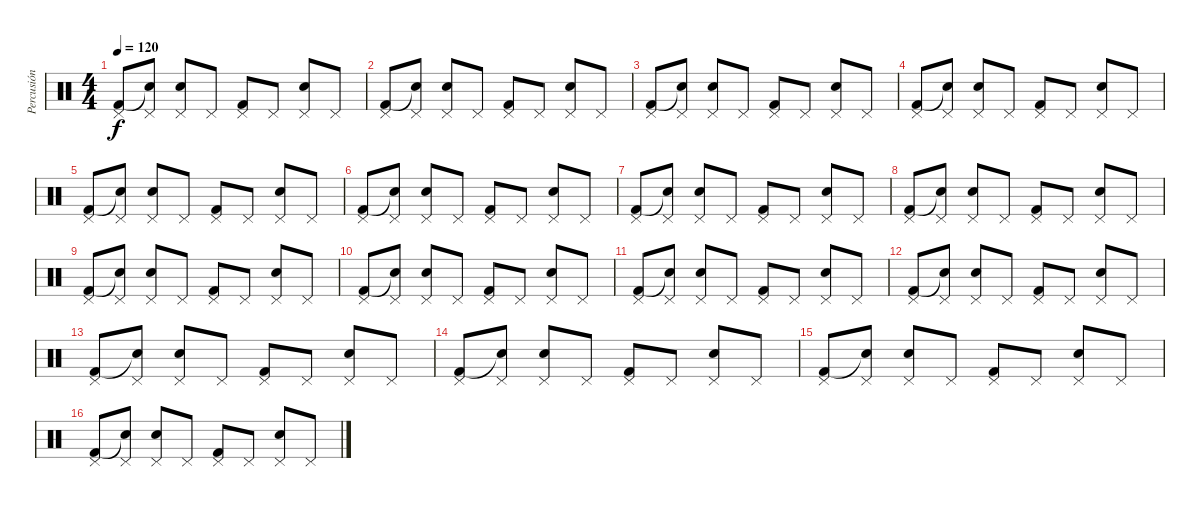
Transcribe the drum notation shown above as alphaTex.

\track ("Percusión" "Percusión") {instrument percussion}
\staff {score}
\articulation defaults
\ts (4 4)
\tempo 120
\clef neutral
\ks c
("Pedal Hi-Hat (hit)" "Kick (hit) 2").8{dy f} ("Pedal Hi-Hat (hit)" "Snare (hit)"{t}).8 ("Pedal Hi-Hat (hit)" "Snare (hit) 2").8 "Pedal Hi-Hat (hit)".8 ("Pedal Hi-Hat (hit)" "Kick (hit) 2").8 "Pedal Hi-Hat (hit)".8 ("Pedal Hi-Hat (hit)" "Snare (hit) 2").8 "Pedal Hi-Hat (hit)".8 |
("Pedal Hi-Hat (hit)" "Kick (hit) 2").8 ("Pedal Hi-Hat (hit)" "Snare (hit)"{t}).8 ("Pedal Hi-Hat (hit)" "Snare (hit) 2").8 "Pedal Hi-Hat (hit)".8 ("Pedal Hi-Hat (hit)" "Kick (hit) 2").8 "Pedal Hi-Hat (hit)".8 ("Pedal Hi-Hat (hit)" "Snare (hit) 2").8 "Pedal Hi-Hat (hit)".8 |
("Pedal Hi-Hat (hit)" "Kick (hit) 2").8 ("Pedal Hi-Hat (hit)" "Snare (hit)"{t}).8 ("Pedal Hi-Hat (hit)" "Snare (hit) 2").8 "Pedal Hi-Hat (hit)".8 ("Pedal Hi-Hat (hit)" "Kick (hit) 2").8 "Pedal Hi-Hat (hit)".8 ("Pedal Hi-Hat (hit)" "Snare (hit) 2").8 "Pedal Hi-Hat (hit)".8 |
("Pedal Hi-Hat (hit)" "Kick (hit) 2").8 ("Pedal Hi-Hat (hit)" "Snare (hit)"{t}).8 ("Pedal Hi-Hat (hit)" "Snare (hit) 2").8 "Pedal Hi-Hat (hit)".8 ("Pedal Hi-Hat (hit)" "Kick (hit) 2").8 "Pedal Hi-Hat (hit)".8 ("Pedal Hi-Hat (hit)" "Snare (hit) 2").8 "Pedal Hi-Hat (hit)".8 |
("Pedal Hi-Hat (hit)" "Kick (hit) 2").8 ("Pedal Hi-Hat (hit)" "Snare (hit)"{t}).8 ("Pedal Hi-Hat (hit)" "Snare (hit) 2").8 "Pedal Hi-Hat (hit)".8 ("Pedal Hi-Hat (hit)" "Kick (hit) 2").8 "Pedal Hi-Hat (hit)".8 ("Pedal Hi-Hat (hit)" "Snare (hit) 2").8 "Pedal Hi-Hat (hit)".8 |
("Pedal Hi-Hat (hit)" "Kick (hit) 2").8 ("Pedal Hi-Hat (hit)" "Snare (hit)"{t}).8 ("Pedal Hi-Hat (hit)" "Snare (hit) 2").8 "Pedal Hi-Hat (hit)".8 ("Pedal Hi-Hat (hit)" "Kick (hit) 2").8 "Pedal Hi-Hat (hit)".8 ("Pedal Hi-Hat (hit)" "Snare (hit) 2").8 "Pedal Hi-Hat (hit)".8 |
("Pedal Hi-Hat (hit)" "Kick (hit) 2").8 ("Pedal Hi-Hat (hit)" "Snare (hit)"{t}).8 ("Pedal Hi-Hat (hit)" "Snare (hit) 2").8 "Pedal Hi-Hat (hit)".8 ("Pedal Hi-Hat (hit)" "Kick (hit) 2").8 "Pedal Hi-Hat (hit)".8 ("Pedal Hi-Hat (hit)" "Snare (hit) 2").8 "Pedal Hi-Hat (hit)".8 |
("Pedal Hi-Hat (hit)" "Kick (hit) 2").8 ("Pedal Hi-Hat (hit)" "Snare (hit)"{t}).8 ("Pedal Hi-Hat (hit)" "Snare (hit) 2").8 "Pedal Hi-Hat (hit)".8 ("Pedal Hi-Hat (hit)" "Kick (hit) 2").8 "Pedal Hi-Hat (hit)".8 ("Pedal Hi-Hat (hit)" "Snare (hit) 2").8 "Pedal Hi-Hat (hit)".8 |
("Pedal Hi-Hat (hit)" "Kick (hit) 2").8 ("Pedal Hi-Hat (hit)" "Snare (hit)"{t}).8 ("Pedal Hi-Hat (hit)" "Snare (hit) 2").8 "Pedal Hi-Hat (hit)".8 ("Pedal Hi-Hat (hit)" "Kick (hit) 2").8 "Pedal Hi-Hat (hit)".8 ("Pedal Hi-Hat (hit)" "Snare (hit) 2").8 "Pedal Hi-Hat (hit)".8 |
("Pedal Hi-Hat (hit)" "Kick (hit) 2").8 ("Pedal Hi-Hat (hit)" "Snare (hit)"{t}).8 ("Pedal Hi-Hat (hit)" "Snare (hit) 2").8 "Pedal Hi-Hat (hit)".8 ("Pedal Hi-Hat (hit)" "Kick (hit) 2").8 "Pedal Hi-Hat (hit)".8 ("Pedal Hi-Hat (hit)" "Snare (hit) 2").8 "Pedal Hi-Hat (hit)".8 |
("Pedal Hi-Hat (hit)" "Kick (hit) 2").8 ("Pedal Hi-Hat (hit)" "Snare (hit)"{t}).8 ("Pedal Hi-Hat (hit)" "Snare (hit) 2").8 "Pedal Hi-Hat (hit)".8 ("Pedal Hi-Hat (hit)" "Kick (hit) 2").8 "Pedal Hi-Hat (hit)".8 ("Pedal Hi-Hat (hit)" "Snare (hit) 2").8 "Pedal Hi-Hat (hit)".8 |
("Pedal Hi-Hat (hit)" "Kick (hit) 2").8 ("Pedal Hi-Hat (hit)" "Snare (hit)"{t}).8 ("Pedal Hi-Hat (hit)" "Snare (hit) 2").8 "Pedal Hi-Hat (hit)".8 ("Pedal Hi-Hat (hit)" "Kick (hit) 2").8 "Pedal Hi-Hat (hit)".8 ("Pedal Hi-Hat (hit)" "Snare (hit) 2").8 "Pedal Hi-Hat (hit)".8 |
("Pedal Hi-Hat (hit)" "Kick (hit) 2").8 ("Pedal Hi-Hat (hit)" "Snare (hit)"{t}).8 ("Pedal Hi-Hat (hit)" "Snare (hit) 2").8 "Pedal Hi-Hat (hit)".8 ("Pedal Hi-Hat (hit)" "Kick (hit) 2").8 "Pedal Hi-Hat (hit)".8 ("Pedal Hi-Hat (hit)" "Snare (hit) 2").8 "Pedal Hi-Hat (hit)".8 |
("Pedal Hi-Hat (hit)" "Kick (hit) 2").8 ("Pedal Hi-Hat (hit)" "Snare (hit)"{t}).8 ("Pedal Hi-Hat (hit)" "Snare (hit) 2").8 "Pedal Hi-Hat (hit)".8 ("Pedal Hi-Hat (hit)" "Kick (hit) 2").8 "Pedal Hi-Hat (hit)".8 ("Pedal Hi-Hat (hit)" "Snare (hit) 2").8 "Pedal Hi-Hat (hit)".8 |
("Pedal Hi-Hat (hit)" "Kick (hit) 2").8 ("Pedal Hi-Hat (hit)" "Snare (hit)"{t}).8 ("Pedal Hi-Hat (hit)" "Snare (hit) 2").8 "Pedal Hi-Hat (hit)".8 ("Pedal Hi-Hat (hit)" "Kick (hit) 2").8 "Pedal Hi-Hat (hit)".8 ("Pedal Hi-Hat (hit)" "Snare (hit) 2").8 "Pedal Hi-Hat (hit)".8 |
("Pedal Hi-Hat (hit)" "Kick (hit) 2").8 ("Pedal Hi-Hat (hit)" "Snare (hit)"{t}).8 ("Pedal Hi-Hat (hit)" "Snare (hit) 2").8 "Pedal Hi-Hat (hit)".8 ("Pedal Hi-Hat (hit)" "Kick (hit) 2").8 "Pedal Hi-Hat (hit)".8 ("Pedal Hi-Hat (hit)" "Snare (hit) 2").8 "Pedal Hi-Hat (hit)".8
